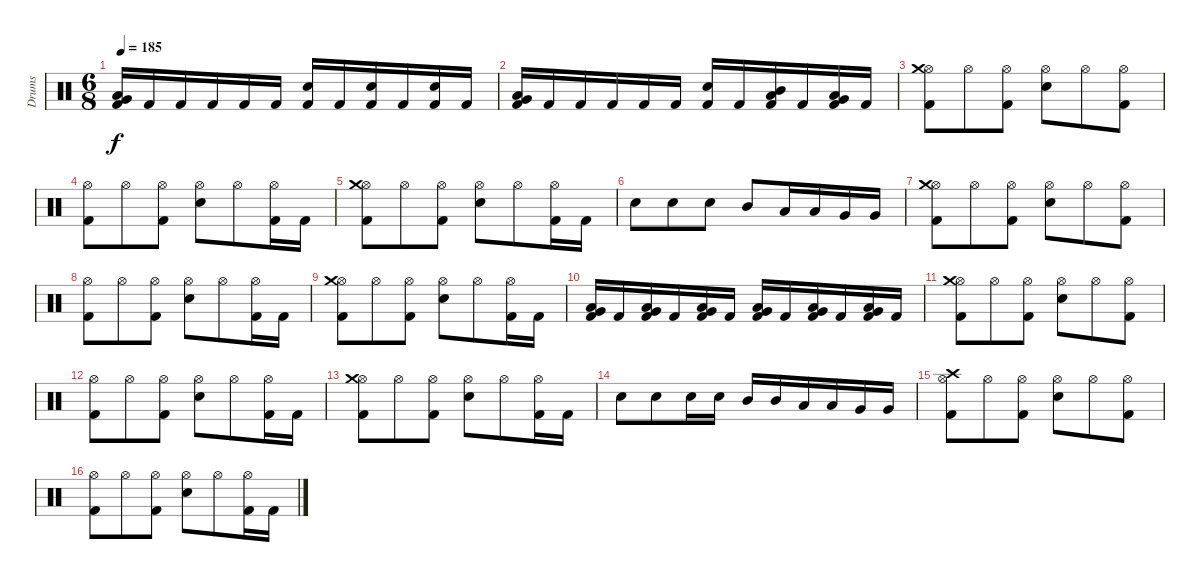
\track ("Drums" "Drums") {instrument percussion}
\staff {score}
\articulation defaults
\ts (6 8)
\tempo 185
\clef neutral
\ks c
("Kick (hit) 2" "Very Low Tom (hit)" "Low Tom (hit)").16{dy f} "Kick (hit) 2".16 "Kick (hit) 2".16 "Kick (hit) 2".16 "Kick (hit) 2".16 "Kick (hit) 2".16 ("Kick (hit) 2" "Electric Snare (hit)").16 "Kick (hit) 2".16 ("Kick (hit) 2" "Electric Snare (hit)").16 "Kick (hit) 2".16 ("Kick (hit) 2" "Electric Snare (hit)").16 "Kick (hit) 2".16 |
("Kick (hit) 2" "Very Low Tom (hit)" "Low Tom (hit)").16 "Kick (hit) 2".16 "Kick (hit) 2".16 "Kick (hit) 2".16 "Kick (hit) 2".16 "Kick (hit) 2".16 ("Kick (hit) 2" "Electric Snare (hit)").16 "Kick (hit) 2".16 ("Kick (hit) 2" "Low Tom (hit)" "Mid Tom (hit)").16 "Kick (hit) 2".16 ("Kick (hit) 2" "Very Low Tom (hit)" "Low Tom (hit)").16 "Kick (hit) 2".16 |
("Kick (hit) 2" "Hi-Hat (open)" "Crash medium (hit)").8 "Hi-Hat (open)".8 ("Kick (hit) 2" "Hi-Hat (open)").8 ("Electric Snare (hit)" "Hi-Hat (open)").8 "Hi-Hat (open)".8 ("Kick (hit) 2" "Hi-Hat (open)").8 |
("Kick (hit) 2" "Hi-Hat (open)").8 "Hi-Hat (open)".8 ("Kick (hit) 2" "Hi-Hat (open)").8 ("Electric Snare (hit)" "Hi-Hat (open)").8 "Hi-Hat (open)".8 ("Kick (hit) 2" "Hi-Hat (open)").16 "Kick (hit) 2".16 |
("Kick (hit) 2" "Hi-Hat (open)" "Crash medium (hit)").8 "Hi-Hat (open)".8 ("Kick (hit) 2" "Hi-Hat (open)").8 ("Electric Snare (hit)" "Hi-Hat (open)").8 "Hi-Hat (open)".8 ("Kick (hit) 2" "Hi-Hat (open)").16 "Kick (hit) 2".16 |
"Electric Snare (hit)".8 "Electric Snare (hit)".8 "Electric Snare (hit)".8 "Mid Tom (hit)".8 "Low Tom (hit)".16 "Low Tom (hit)".16 "Very Low Tom (hit)".16 "Very Low Tom (hit)".16 |
("Kick (hit) 2" "Hi-Hat (open)" "Crash medium (hit)").8 "Hi-Hat (open)".8 ("Kick (hit) 2" "Hi-Hat (open)").8 ("Electric Snare (hit)" "Hi-Hat (open)").8 "Hi-Hat (open)".8 ("Kick (hit) 2" "Hi-Hat (open)").8 |
("Kick (hit) 2" "Hi-Hat (open)").8 "Hi-Hat (open)".8 ("Kick (hit) 2" "Hi-Hat (open)").8 ("Electric Snare (hit)" "Hi-Hat (open)").8 "Hi-Hat (open)".8 ("Kick (hit) 2" "Hi-Hat (open)").16 "Kick (hit) 2".16 |
("Kick (hit) 2" "Hi-Hat (open)" "Crash medium (hit)").8 "Hi-Hat (open)".8 ("Kick (hit) 2" "Hi-Hat (open)").8 ("Electric Snare (hit)" "Hi-Hat (open)").8 "Hi-Hat (open)".8 ("Kick (hit) 2" "Hi-Hat (open)").16 "Kick (hit) 2".16 |
("Kick (hit) 2" "Very Low Tom (hit)" "Low Tom (hit)").16 "Kick (hit) 2".16 ("Kick (hit) 2" "Very Low Tom (hit)" "Low Tom (hit)").16 "Kick (hit) 2".16 ("Kick (hit) 2" "Very Low Tom (hit)" "Low Tom (hit)").16 "Kick (hit) 2".16 ("Kick (hit) 2" "Low Floor Tom (hit)" "Very Low Tom (hit)").16 "Kick (hit) 2".16 ("Kick (hit) 2" "Low Floor Tom (hit)" "Very Low Tom (hit)").16 "Kick (hit) 2".16 ("Kick (hit) 2" "Low Floor Tom (hit)" "Very Low Tom (hit)").16 "Kick (hit) 2".16 |
("Kick (hit) 2" "Hi-Hat (open)" "Crash medium (hit)").8 "Hi-Hat (open)".8 ("Kick (hit) 2" "Hi-Hat (open)").8 ("Electric Snare (hit)" "Hi-Hat (open)").8 "Hi-Hat (open)".8 ("Kick (hit) 2" "Hi-Hat (open)").8 |
("Kick (hit) 2" "Hi-Hat (open)").8 "Hi-Hat (open)".8 ("Kick (hit) 2" "Hi-Hat (open)").8 ("Electric Snare (hit)" "Hi-Hat (open)").8 "Hi-Hat (open)".8 ("Kick (hit) 2" "Hi-Hat (open)").16 "Kick (hit) 2".16 |
("Kick (hit) 2" "Hi-Hat (open)" "Crash medium (hit)").8 "Hi-Hat (open)".8 ("Kick (hit) 2" "Hi-Hat (open)").8 ("Electric Snare (hit)" "Hi-Hat (open)").8 "Hi-Hat (open)".8 ("Kick (hit) 2" "Hi-Hat (open)").16 "Kick (hit) 2".16 |
"Electric Snare (hit)".8 "Electric Snare (hit)".8 "Electric Snare (hit)".16 "Electric Snare (hit)".16 "Mid Tom (hit)".16 "Mid Tom (hit)".16 "Low Tom (hit)".16 "Low Tom (hit)".16 "Very Low Tom (hit)".16 "Very Low Tom (hit)".16 |
("Kick (hit) 2" "Hi-Hat (open)" "Crash high (hit)").8 "Hi-Hat (open)".8 ("Kick (hit) 2" "Hi-Hat (open)").8 ("Electric Snare (hit)" "Hi-Hat (open)").8 "Hi-Hat (open)".8 ("Kick (hit) 2" "Hi-Hat (open)").8 |
("Kick (hit) 2" "Hi-Hat (open)").8 "Hi-Hat (open)".8 ("Kick (hit) 2" "Hi-Hat (open)").8 ("Electric Snare (hit)" "Hi-Hat (open)").8 "Hi-Hat (open)".8 ("Kick (hit) 2" "Hi-Hat (open)").16 "Kick (hit) 2".16
